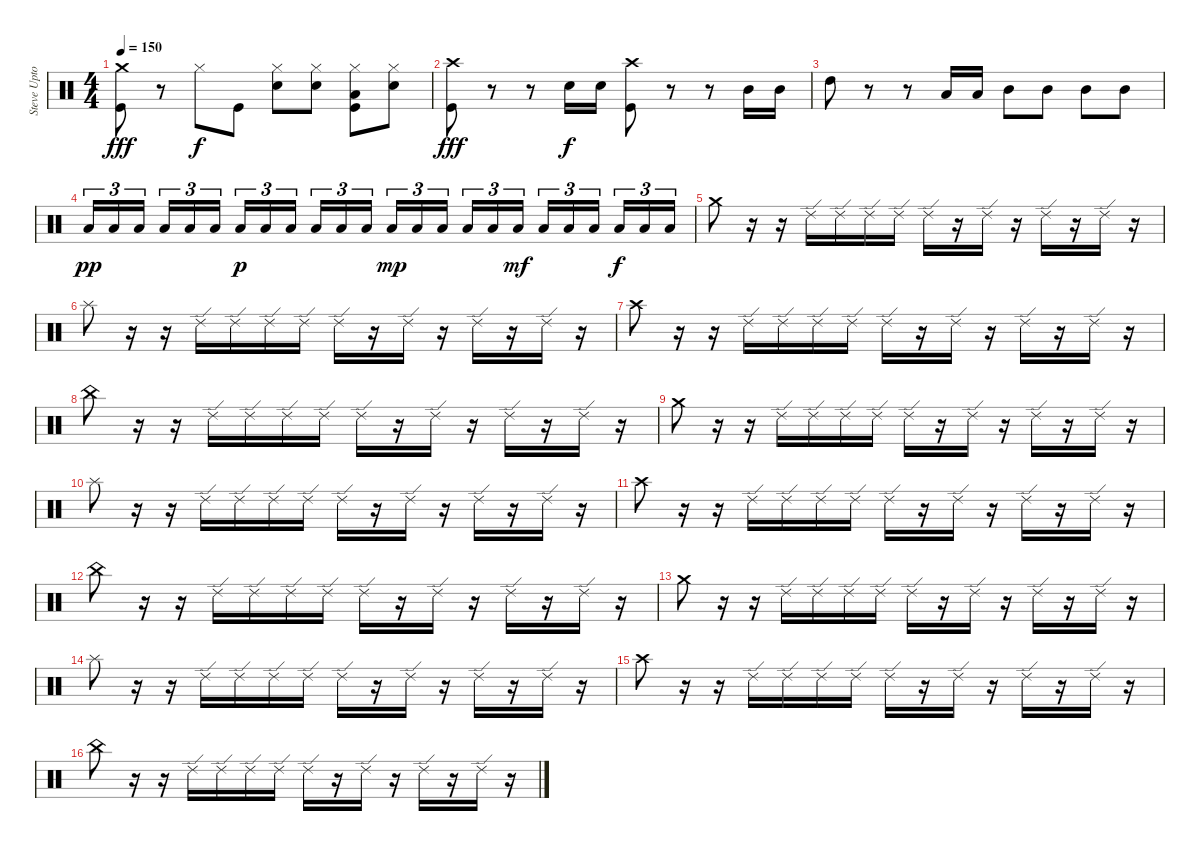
\track ("Steve Upton (drums)" "Steve Upto") {instrument percussion}
\staff {score}
\articulation defaults
\ts (4 4)
\tempo 150
\clef neutral
\ks c
("Crash medium (hit)" "Kick (hit)").8{dy fff} r.8 "Hi-Hat (closed)".8{dy f} "Kick (hit)".8 ("Hi-Hat (closed)" "Electric Snare (hit)").8 ("Hi-Hat (closed)" "Electric Snare (hit)").8 ("Hi-Hat (closed)" "Low Tom (hit)" "Kick (hit)").8 ("Hi-Hat (closed)" "Electric Snare (hit)").8 |
("Crash high (hit)" "Kick (hit)").8{dy fff} r.8 r.8 "Electric Snare (hit)".16{dy f} "Electric Snare (hit)".16 ("Crash high (hit)" "Kick (hit)").8 r.8 r.8 "Mid Tom (hit)".16 "Mid Tom (hit)".16 |
"High Tom (hit)".8 r.8 r.8 "Low Tom (hit)".16 "Low Tom (hit)".16 "Mid Tom (hit)".8 "Mid Tom (hit)".8 "Mid Tom (hit)".8 "Mid Tom (hit)".8 |
"Low Tom (hit)".16{tu (3 2) dy pp} "Low Tom (hit)".16{tu (3 2)} "Low Tom (hit)".16{tu (3 2) beam splitsecondary} "Low Tom (hit)".16{tu (3 2)} "Low Tom (hit)".16{tu (3 2)} "Low Tom (hit)".16{tu (3 2)} "Low Tom (hit)".16{tu (3 2) dy p} "Low Tom (hit)".16{tu (3 2)} "Low Tom (hit)".16{tu (3 2) beam splitsecondary} "Low Tom (hit)".16{tu (3 2)} "Low Tom (hit)".16{tu (3 2)} "Low Tom (hit)".16{tu (3 2)} "Low Tom (hit)".16{tu (3 2) dy mp} "Low Tom (hit)".16{tu (3 2)} "Low Tom (hit)".16{tu (3 2) beam splitsecondary} "Low Tom (hit)".16{tu (3 2)} "Low Tom (hit)".16{tu (3 2)} "Low Tom (hit)".16{tu (3 2) dy mf} "Low Tom (hit)".16{tu (3 2)} "Low Tom (hit)".16{tu (3 2)} "Low Tom (hit)".16{tu (3 2) beam splitsecondary} "Low Tom (hit)".16{tu (3 2) dy f} "Low Tom (hit)".16{tu (3 2)} "Low Tom (hit)".16{tu (3 2)} |
"Crash medium (hit)".8 r.16 r.16 "Ride (edge) 2".16 "Ride (edge) 2".16 "Ride (edge) 2".16 "Ride (edge) 2".16 "Ride (edge) 2".16 r.16 "Ride (edge) 2".16 r.16 "Ride (edge) 2".16 r.16 "Ride (edge) 2".16 r.16 |
"Splash (hit)".8 r.16 r.16 "Ride (edge) 2".16 "Ride (edge) 2".16 "Ride (edge) 2".16 "Ride (edge) 2".16 "Ride (edge) 2".16 r.16 "Ride (edge) 2".16 r.16 "Ride (edge) 2".16 r.16 "Ride (edge) 2".16 r.16 |
"Crash high (hit)".8 r.16 r.16 "Ride (edge) 2".16 "Ride (edge) 2".16 "Ride (edge) 2".16 "Ride (edge) 2".16 "Ride (edge) 2".16 r.16 "Ride (edge) 2".16 r.16 "Ride (edge) 2".16 r.16 "Ride (edge) 2".16 r.16 |
"China (hit)".8 r.16 r.16 "Ride (edge) 2".16 "Ride (edge) 2".16 "Ride (edge) 2".16 "Ride (edge) 2".16 "Ride (edge) 2".16 r.16 "Ride (edge) 2".16 r.16 "Ride (edge) 2".16 r.16 "Ride (edge) 2".16 r.16 |
"Crash medium (hit)".8 r.16 r.16 "Ride (edge) 2".16 "Ride (edge) 2".16 "Ride (edge) 2".16 "Ride (edge) 2".16 "Ride (edge) 2".16 r.16 "Ride (edge) 2".16 r.16 "Ride (edge) 2".16 r.16 "Ride (edge) 2".16 r.16 |
"Splash (hit)".8 r.16 r.16 "Ride (edge) 2".16 "Ride (edge) 2".16 "Ride (edge) 2".16 "Ride (edge) 2".16 "Ride (edge) 2".16 r.16 "Ride (edge) 2".16 r.16 "Ride (edge) 2".16 r.16 "Ride (edge) 2".16 r.16 |
"Crash high (hit)".8 r.16 r.16 "Ride (edge) 2".16 "Ride (edge) 2".16 "Ride (edge) 2".16 "Ride (edge) 2".16 "Ride (edge) 2".16 r.16 "Ride (edge) 2".16 r.16 "Ride (edge) 2".16 r.16 "Ride (edge) 2".16 r.16 |
"China (hit)".8 r.16 r.16 "Ride (edge) 2".16 "Ride (edge) 2".16 "Ride (edge) 2".16 "Ride (edge) 2".16 "Ride (edge) 2".16 r.16 "Ride (edge) 2".16 r.16 "Ride (edge) 2".16 r.16 "Ride (edge) 2".16 r.16 |
"Crash medium (hit)".8 r.16 r.16 "Ride (edge) 2".16 "Ride (edge) 2".16 "Ride (edge) 2".16 "Ride (edge) 2".16 "Ride (edge) 2".16 r.16 "Ride (edge) 2".16 r.16 "Ride (edge) 2".16 r.16 "Ride (edge) 2".16 r.16 |
"Splash (hit)".8 r.16 r.16 "Ride (edge) 2".16 "Ride (edge) 2".16 "Ride (edge) 2".16 "Ride (edge) 2".16 "Ride (edge) 2".16 r.16 "Ride (edge) 2".16 r.16 "Ride (edge) 2".16 r.16 "Ride (edge) 2".16 r.16 |
"Crash high (hit)".8 r.16 r.16 "Ride (edge) 2".16 "Ride (edge) 2".16 "Ride (edge) 2".16 "Ride (edge) 2".16 "Ride (edge) 2".16 r.16 "Ride (edge) 2".16 r.16 "Ride (edge) 2".16 r.16 "Ride (edge) 2".16 r.16 |
"China (hit)".8 r.16 r.16 "Ride (edge) 2".16 "Ride (edge) 2".16 "Ride (edge) 2".16 "Ride (edge) 2".16 "Ride (edge) 2".16 r.16 "Ride (edge) 2".16 r.16 "Ride (edge) 2".16 r.16 "Ride (edge) 2".16 r.16
